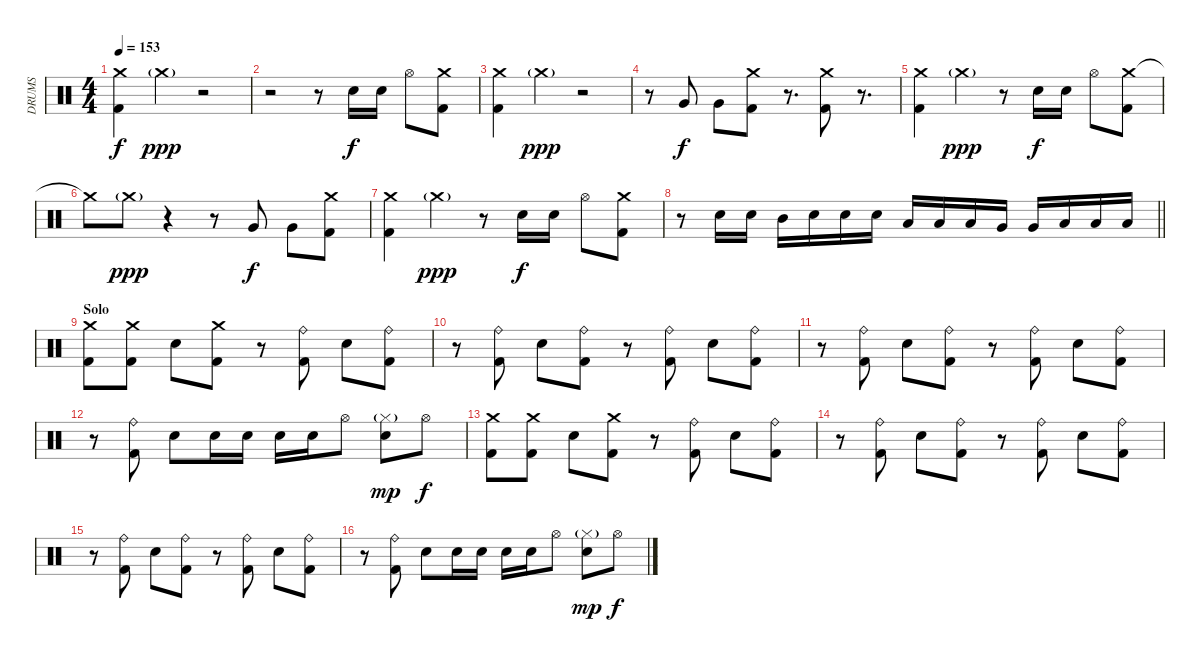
\track ("DRUMS" "DRUMS") {instrument percussion}
\staff {score}
\articulation defaults
\ts (4 4)
\tempo 153
\clef neutral
\ks c
("Crash medium (hit)" "Kick (hit) 2").4{dy f} "Crash medium (hit)"{g}.4{dy ppp} r.2 |
r.2 r.8 "Snare (hit) 2".16{dy f} "Snare (hit) 2".16 "Hi-Hat (open)".8 ("Crash medium (hit)" "Kick (hit) 2").8 |
("Crash medium (hit)" "Kick (hit) 2").4 "Crash medium (hit)"{g}.4{dy ppp} r.2 |
r.8 "Very Low Tom (hit)".8{dy f} "Very Low Tom (hit)".8 ("Crash medium (hit)" "Kick (hit) 2").8 r.8{d} ("Crash medium (hit)" "Kick (hit) 2").8 r.8{d} |
("Crash medium (hit)" "Kick (hit) 2").4 "Crash medium (hit)"{g}.4{dy ppp} r.8 "Snare (hit) 2".16{dy f} "Snare (hit) 2".16 "Hi-Hat (open)".8 ("Crash medium (hit)" "Kick (hit) 2").8 |
"Crash medium (hit)"{t}.8 "Crash medium (hit)"{g}.8{dy ppp} r.4 r.8 "Very Low Tom (hit)".8{dy f} "Very Low Tom (hit)".8 ("Crash medium (hit)" "Kick (hit) 2").8 |
("Crash medium (hit)" "Kick (hit) 2").4 "Crash medium (hit)"{g}.4{dy ppp} r.8 "Snare (hit) 2".16{dy f} "Snare (hit) 2".16 "Hi-Hat (open)".8 ("Crash medium (hit)" "Kick (hit) 2").8 |
\barLineRight lightlight
r.8 "Snare (hit) 2".16 "Snare (hit) 2".16 "Mid Tom (hit)".16 "Snare (hit) 2".16 "Snare (hit) 2".16 "Snare (hit) 2".16 "Low Tom (hit)".16 "Low Tom (hit)".16 "Low Tom (hit)".16 "Very Low Tom (hit)".16 "Very Low Tom (hit)".16 "Low Floor Tom (hit)".16 "Low Floor Tom (hit)".16 "Low Floor Tom (hit)".16 |
\section ("" "Solo")
("Crash medium (hit)" "Kick (hit) 2").8 ("Crash medium (hit)" "Kick (hit) 2").8 "Snare (hit) 2".8 ("Crash medium (hit)" "Kick (hit) 2").8 r.8 ("Ride (bell)" "Kick (hit) 2").8 "Snare (hit) 2".8 ("Ride (bell)" "Kick (hit) 2").8 |
r.8 ("Ride (bell)" "Kick (hit) 2").8 "Snare (hit) 2".8 ("Ride (bell)" "Kick (hit) 2").8 r.8 ("Ride (bell)" "Kick (hit) 2").8 "Snare (hit) 2".8 ("Ride (bell)" "Kick (hit) 2").8 |
r.8 ("Ride (bell)" "Kick (hit) 2").8 "Snare (hit) 2".8 ("Ride (bell)" "Kick (hit) 2").8 r.8 ("Ride (bell)" "Kick (hit) 2").8 "Snare (hit) 2".8 ("Ride (bell)" "Kick (hit) 2").8 |
r.8 ("Ride (bell)" "Kick (hit) 2").8 "Snare (hit) 2".8 "Snare (hit) 2".16 "Snare (hit) 2".16 "Snare (hit) 2".16 "Snare (hit) 2".16 "Hi-Hat (open)".8 ("Hi-Hat (closed)"{g} "Snare (hit) 2").8{dy mp} "Hi-Hat (open)".8{dy f} |
("Crash medium (hit)" "Kick (hit) 2").8 ("Crash medium (hit)" "Kick (hit) 2").8 "Snare (hit) 2".8 ("Crash medium (hit)" "Kick (hit) 2").8 r.8 ("Ride (bell)" "Kick (hit) 2").8 "Snare (hit) 2".8 ("Ride (bell)" "Kick (hit) 2").8 |
r.8 ("Ride (bell)" "Kick (hit) 2").8 "Snare (hit) 2".8 ("Ride (bell)" "Kick (hit) 2").8 r.8 ("Ride (bell)" "Kick (hit) 2").8 "Snare (hit) 2".8 ("Ride (bell)" "Kick (hit) 2").8 |
r.8 ("Ride (bell)" "Kick (hit) 2").8 "Snare (hit) 2".8 ("Ride (bell)" "Kick (hit) 2").8 r.8 ("Ride (bell)" "Kick (hit) 2").8 "Snare (hit) 2".8 ("Ride (bell)" "Kick (hit) 2").8 |
r.8 ("Ride (bell)" "Kick (hit) 2").8 "Snare (hit) 2".8 "Snare (hit) 2".16 "Snare (hit) 2".16 "Snare (hit) 2".16 "Snare (hit) 2".16 "Hi-Hat (open)".8 ("Hi-Hat (closed)"{g} "Snare (hit) 2").8{dy mp} "Hi-Hat (open)".8{dy f}
